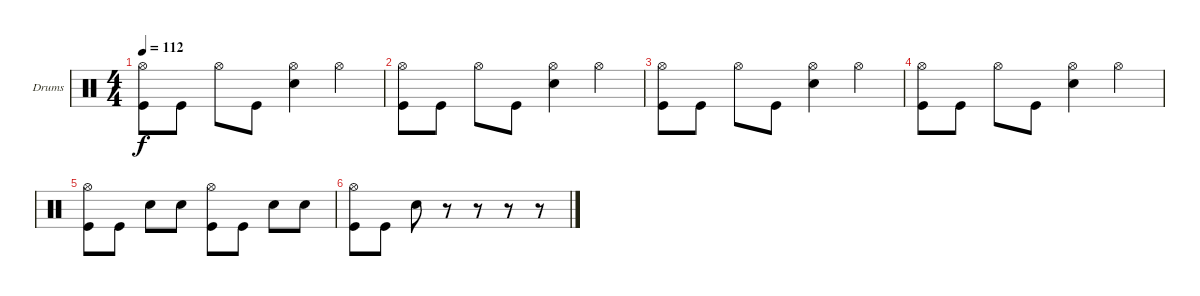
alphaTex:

\bracketExtendMode groupsimilarinstruments
\firstSystemTrackNameOrientation horizontal
\otherSystemsTrackNameOrientation horizontal
\track ("Drumkit" "Drums") {instrument percussion}
\staff {score}
\articulation defaults
\ts (4 4)
\tempo 112
\clef neutral
\ks c
("Kick (hit)" "Hi-Hat (open)").8{dy f} "Kick (hit)".8 "Hi-Hat (open)".8 "Kick (hit)".8 ("Snare (hit) 2" "Hi-Hat (open)").4 "Hi-Hat (open)".4 |
("Kick (hit)" "Hi-Hat (open)").8 "Kick (hit)".8 "Hi-Hat (open)".8 "Kick (hit)".8 ("Snare (hit) 2" "Hi-Hat (open)").4 "Hi-Hat (open)".4 |
("Kick (hit)" "Hi-Hat (open)").8 "Kick (hit)".8 "Hi-Hat (open)".8 "Kick (hit)".8 ("Snare (hit) 2" "Hi-Hat (open)").4 "Hi-Hat (open)".4 |
("Kick (hit)" "Hi-Hat (open)").8 "Kick (hit)".8 "Hi-Hat (open)".8 "Kick (hit)".8 ("Snare (hit) 2" "Hi-Hat (open)").4 "Hi-Hat (open)".4 |
("Kick (hit)" "Hi-Hat (open)").8 "Kick (hit)".8 "Snare (hit) 2".8 "Snare (hit) 2".8 ("Kick (hit)" "Hi-Hat (open)").8 "Kick (hit)".8 "Snare (hit) 2".8 "Snare (hit) 2".8 |
("Kick (hit)" "Hi-Hat (open)").8 "Kick (hit)".8 "Snare (hit) 2".8 r.8 r.8 r.8 r.8
